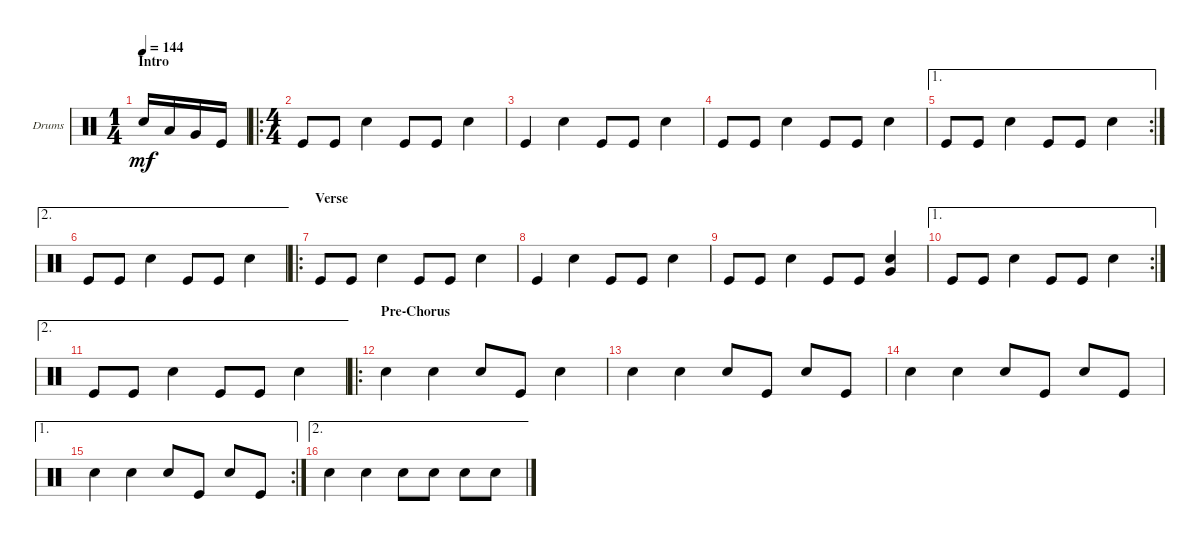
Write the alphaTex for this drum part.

\defaultSystemsLayout 4
\bracketExtendMode groupsimilarinstruments
\firstSystemTrackNameOrientation horizontal
\otherSystemsTrackNameOrientation horizontal
\track ("Fabrizio Moretti" "Drums") {instrument percussion}
\staff {score}
\articulation defaults
\ts (1 4)
\section ("" "Intro")
\tempo 144
\clef neutral
\scale
0.474178
\ks c "Snare (hit) 2".16{dy mf} "Low Tom (hit)".16 "Very Low Tom (hit)".16 "Kick (hit)".16
|
\ro
\ts (4 4)
\scale
0.262911 "Kick (hit)".8 "Kick (hit)".8 "Snare (hit) 2".4 "Kick (hit)".8 "Kick (hit)".8 "Snare (hit) 2".4 |
\scale
0.262911 "Kick (hit)".4 "Snare (hit) 2".4 "Kick (hit)".8 "Kick (hit)".8 "Snare (hit) 2".4 |
\scale
0.333333 "Kick (hit)".8 "Kick (hit)".8 "Snare (hit) 2".4 "Kick (hit)".8 "Kick (hit)".8 "Snare (hit) 2".4 |
\ae 1
\rc 2
\scale
0.333333 "Kick (hit)".8 "Kick (hit)".8 "Snare (hit) 2".4 "Kick (hit)".8 "Kick (hit)".8 "Snare (hit) 2".4 |
\ae 2 "Kick (hit)".8 "Kick (hit)".8 "Snare (hit) 2".4 "Kick (hit)".8 "Kick (hit)".8 "Snare (hit) 2".4
|
\ro
\section ("" "Verse")
"Kick (hit)".8 "Kick (hit)".8 "Snare (hit) 2".4 "Kick (hit)".8 "Kick (hit)".8 "Snare (hit) 2".4 |
"Kick (hit)".4 "Snare (hit) 2".4 "Kick (hit)".8 "Kick (hit)".8 "Snare (hit) 2".4 |
"Kick (hit)".8 "Kick (hit)".8 "Snare (hit) 2".4 "Kick (hit)".8 "Kick (hit)".8 ("Snare (hit) 2" "Very Low Tom (hit)").4 |
\ae 1
\rc 2 "Kick (hit)".8 "Kick (hit)".8 "Snare (hit) 2".4 "Kick (hit)".8 "Kick (hit)".8 "Snare (hit) 2".4
|
\ae 2 "Kick (hit)".8 "Kick (hit)".8 "Snare (hit) 2".4 "Kick (hit)".8 "Kick (hit)".8 "Snare (hit) 2".4
|
\ro
\section ("" "Pre-Chorus")
"Snare (hit) 2".4 "Snare (hit) 2".4 "Snare (hit) 2".8 "Kick (hit)".8 "Snare (hit) 2".4 |
"Snare (hit) 2".4 "Snare (hit) 2".4 "Snare (hit) 2".8 "Kick (hit)".8 "Snare (hit) 2".8 "Kick (hit)".8 |
"Snare (hit) 2".4 "Snare (hit) 2".4 "Snare (hit) 2".8 "Kick (hit)".8 "Snare (hit) 2".8 "Kick (hit)".8 |
\ae 1
\rc 2 "Snare (hit) 2".4 "Snare (hit) 2".4 "Snare (hit) 2".8 "Kick (hit)".8 "Snare (hit) 2".8 "Kick (hit)".8
|
\ae 2 "Snare (hit) 2".4 "Snare (hit) 2".4 "Snare (hit) 2".8 "Snare (hit) 2".8 "Snare (hit) 2".8 "Snare (hit) 2".8
